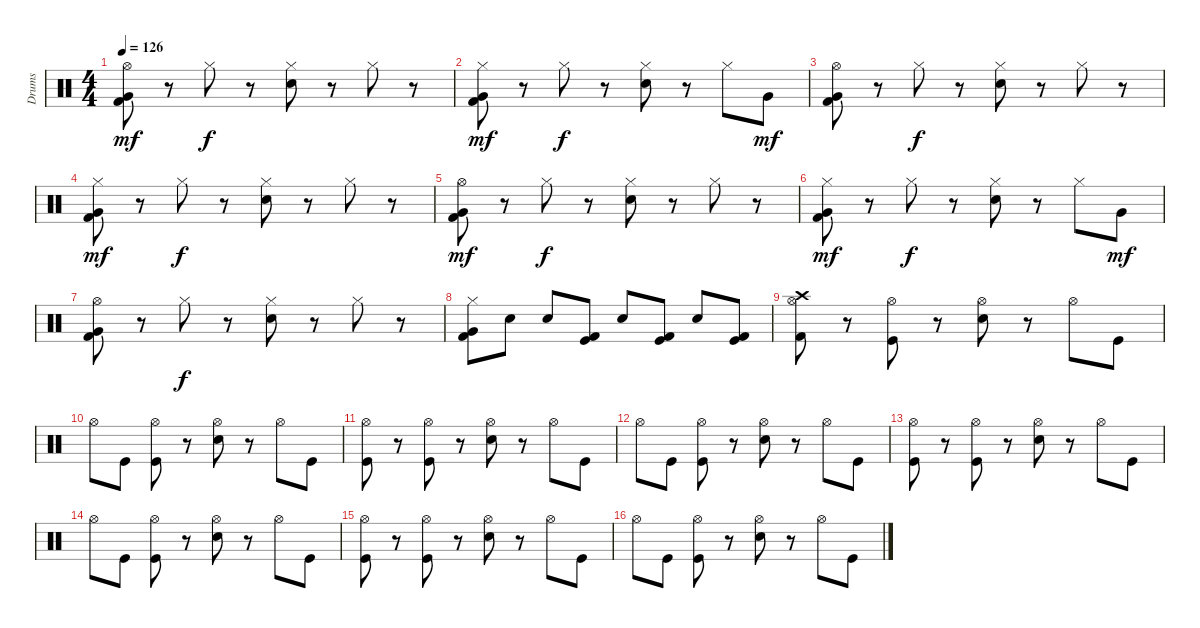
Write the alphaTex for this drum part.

\track ("Drums" "Drums") {instrument percussion}
\staff {score}
\articulation defaults
\ts (4 4)
\tempo 126
\clef neutral
\ks c
("Hi-Hat (open)" "Very Low Tom (hit)" "Kick (hit) 2").8{dy mf} r.8 "Hi-Hat (closed)".8{dy f} r.8 ("Hi-Hat (closed)" "Electric Snare (hit)").8 r.8 "Hi-Hat (closed)".8 r.8 |
("Hi-Hat (closed)" "Very Low Tom (hit)" "Kick (hit) 2").8{dy mf} r.8 "Hi-Hat (closed)".8{dy f} r.8 ("Hi-Hat (closed)" "Electric Snare (hit)").8 r.8 "Hi-Hat (closed)".8 "Very Low Tom (hit)".8{dy mf} |
("Hi-Hat (open)" "Very Low Tom (hit)" "Kick (hit) 2").8 r.8 "Hi-Hat (closed)".8{dy f} r.8 ("Hi-Hat (closed)" "Electric Snare (hit)").8 r.8 "Hi-Hat (closed)".8 r.8 |
("Hi-Hat (closed)" "Very Low Tom (hit)" "Kick (hit) 2").8{dy mf} r.8 "Hi-Hat (closed)".8{dy f} r.8 ("Hi-Hat (closed)" "Electric Snare (hit)").8 r.8 "Hi-Hat (closed)".8 r.8 |
("Hi-Hat (open)" "Very Low Tom (hit)" "Kick (hit) 2").8{dy mf} r.8 "Hi-Hat (closed)".8{dy f} r.8 ("Hi-Hat (closed)" "Electric Snare (hit)").8 r.8 "Hi-Hat (closed)".8 r.8 |
("Hi-Hat (closed)" "Very Low Tom (hit)" "Kick (hit) 2").8{dy mf} r.8 "Hi-Hat (closed)".8{dy f} r.8 ("Hi-Hat (closed)" "Electric Snare (hit)").8 r.8 "Hi-Hat (closed)".8 "Very Low Tom (hit)".8{dy mf} |
("Hi-Hat (open)" "Very Low Tom (hit)" "Kick (hit) 2").8 r.8 "Hi-Hat (closed)".8{dy f} r.8 ("Hi-Hat (closed)" "Electric Snare (hit)").8 r.8 "Hi-Hat (closed)".8 r.8 |
("Hi-Hat (closed)" "Very Low Tom (hit)" "Kick (hit) 2").8 "Electric Snare (hit)".8 "Electric Snare (hit)".8 ("Kick (hit)" "Kick (hit) 2").8 "Electric Snare (hit)".8 ("Kick (hit)" "Kick (hit) 2").8 "Electric Snare (hit)".8 ("Kick (hit)" "Kick (hit) 2").8 |
("Crash high (hit)" "Hi-Hat (open)" "Kick (hit) 2").8{volume 15} r.8 ("Hi-Hat (open)" "Kick (hit)").8 r.8 ("Hi-Hat (open)" "Electric Snare (hit)").8 r.8 "Hi-Hat (open)".8 "Kick (hit)".8 |
"Hi-Hat (open)".8 "Kick (hit)".8 ("Hi-Hat (open)" "Kick (hit)").8 r.8 ("Hi-Hat (open)" "Electric Snare (hit)").8 r.8 "Hi-Hat (open)".8 "Kick (hit)".8 |
("Hi-Hat (open)" "Kick (hit)").8 r.8 ("Hi-Hat (open)" "Kick (hit)").8 r.8 ("Hi-Hat (open)" "Electric Snare (hit)").8 r.8 "Hi-Hat (open)".8 "Kick (hit)".8 |
"Hi-Hat (open)".8 "Kick (hit)".8 ("Hi-Hat (open)" "Kick (hit)").8 r.8 ("Hi-Hat (open)" "Electric Snare (hit)").8 r.8 "Hi-Hat (open)".8 "Kick (hit)".8 |
("Hi-Hat (open)" "Kick (hit)").8 r.8 ("Hi-Hat (open)" "Kick (hit)").8 r.8 ("Hi-Hat (open)" "Electric Snare (hit)").8 r.8 "Hi-Hat (open)".8 "Kick (hit)".8 |
"Hi-Hat (open)".8 "Kick (hit)".8 ("Hi-Hat (open)" "Kick (hit)").8 r.8 ("Hi-Hat (open)" "Electric Snare (hit)").8 r.8 "Hi-Hat (open)".8 "Kick (hit)".8 |
("Hi-Hat (open)" "Kick (hit)").8 r.8 ("Hi-Hat (open)" "Kick (hit)").8 r.8 ("Hi-Hat (open)" "Electric Snare (hit)").8 r.8 "Hi-Hat (open)".8 "Kick (hit)".8 |
"Hi-Hat (open)".8 "Kick (hit)".8 ("Hi-Hat (open)" "Kick (hit)").8 r.8 ("Hi-Hat (open)" "Electric Snare (hit)").8 r.8 "Hi-Hat (open)".8 "Kick (hit)".8
